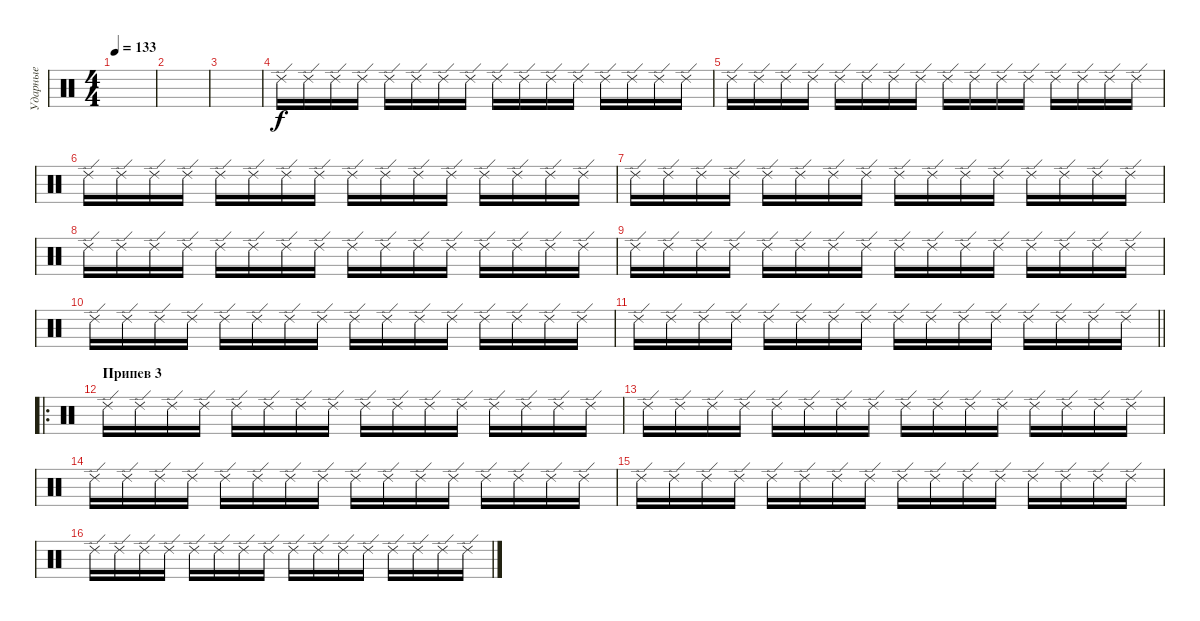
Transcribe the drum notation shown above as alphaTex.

\track ("Ударные" "Ударные") {instrument percussion}
\staff {score}
\articulation defaults
\ts (4 4)
\tempo 133
\clef neutral
\ks c
|
|
|
"Ride (edge) 2".16 "Ride (edge) 2".16 "Ride (edge) 2".16 "Ride (edge) 2".16 "Ride (edge) 2".16 "Ride (edge) 2".16 "Ride (edge) 2".16 "Ride (edge) 2".16 "Ride (edge) 2".16 "Ride (edge) 2".16 "Ride (edge) 2".16 "Ride (edge) 2".16 "Ride (edge) 2".16 "Ride (edge) 2".16 "Ride (edge) 2".16 "Ride (edge) 2".16 |
"Ride (edge) 2".16 "Ride (edge) 2".16 "Ride (edge) 2".16 "Ride (edge) 2".16 "Ride (edge) 2".16 "Ride (edge) 2".16 "Ride (edge) 2".16 "Ride (edge) 2".16 "Ride (edge) 2".16 "Ride (edge) 2".16 "Ride (edge) 2".16 "Ride (edge) 2".16 "Ride (edge) 2".16 "Ride (edge) 2".16 "Ride (edge) 2".16 "Ride (edge) 2".16 |
"Ride (edge) 2".16 "Ride (edge) 2".16 "Ride (edge) 2".16 "Ride (edge) 2".16 "Ride (edge) 2".16 "Ride (edge) 2".16 "Ride (edge) 2".16 "Ride (edge) 2".16 "Ride (edge) 2".16 "Ride (edge) 2".16 "Ride (edge) 2".16 "Ride (edge) 2".16 "Ride (edge) 2".16 "Ride (edge) 2".16 "Ride (edge) 2".16 "Ride (edge) 2".16 |
"Ride (edge) 2".16 "Ride (edge) 2".16 "Ride (edge) 2".16 "Ride (edge) 2".16 "Ride (edge) 2".16 "Ride (edge) 2".16 "Ride (edge) 2".16 "Ride (edge) 2".16 "Ride (edge) 2".16 "Ride (edge) 2".16 "Ride (edge) 2".16 "Ride (edge) 2".16 "Ride (edge) 2".16 "Ride (edge) 2".16 "Ride (edge) 2".16 "Ride (edge) 2".16 |
"Ride (edge) 2".16 "Ride (edge) 2".16 "Ride (edge) 2".16 "Ride (edge) 2".16 "Ride (edge) 2".16 "Ride (edge) 2".16 "Ride (edge) 2".16 "Ride (edge) 2".16 "Ride (edge) 2".16 "Ride (edge) 2".16 "Ride (edge) 2".16 "Ride (edge) 2".16 "Ride (edge) 2".16 "Ride (edge) 2".16 "Ride (edge) 2".16 "Ride (edge) 2".16 |
"Ride (edge) 2".16 "Ride (edge) 2".16 "Ride (edge) 2".16 "Ride (edge) 2".16 "Ride (edge) 2".16 "Ride (edge) 2".16 "Ride (edge) 2".16 "Ride (edge) 2".16 "Ride (edge) 2".16 "Ride (edge) 2".16 "Ride (edge) 2".16 "Ride (edge) 2".16 "Ride (edge) 2".16 "Ride (edge) 2".16 "Ride (edge) 2".16 "Ride (edge) 2".16 |
"Ride (edge) 2".16 "Ride (edge) 2".16 "Ride (edge) 2".16 "Ride (edge) 2".16 "Ride (edge) 2".16 "Ride (edge) 2".16 "Ride (edge) 2".16 "Ride (edge) 2".16 "Ride (edge) 2".16 "Ride (edge) 2".16 "Ride (edge) 2".16 "Ride (edge) 2".16 "Ride (edge) 2".16 "Ride (edge) 2".16 "Ride (edge) 2".16 "Ride (edge) 2".16 |
\barLineRight lightlight "Ride (edge) 2".16 "Ride (edge) 2".16 "Ride (edge) 2".16 "Ride (edge) 2".16 "Ride (edge) 2".16 "Ride (edge) 2".16 "Ride (edge) 2".16 "Ride (edge) 2".16 "Ride (edge) 2".16 "Ride (edge) 2".16 "Ride (edge) 2".16 "Ride (edge) 2".16 "Ride (edge) 2".16 "Ride (edge) 2".16 "Ride (edge) 2".16 "Ride (edge) 2".16
|
\ro
\section ("" "Припев 3")
"Ride (edge) 2".16 "Ride (edge) 2".16 "Ride (edge) 2".16 "Ride (edge) 2".16 "Ride (edge) 2".16 "Ride (edge) 2".16 "Ride (edge) 2".16 "Ride (edge) 2".16 "Ride (edge) 2".16 "Ride (edge) 2".16 "Ride (edge) 2".16 "Ride (edge) 2".16 "Ride (edge) 2".16 "Ride (edge) 2".16 "Ride (edge) 2".16 "Ride (edge) 2".16 |
"Ride (edge) 2".16 "Ride (edge) 2".16 "Ride (edge) 2".16 "Ride (edge) 2".16 "Ride (edge) 2".16 "Ride (edge) 2".16 "Ride (edge) 2".16 "Ride (edge) 2".16 "Ride (edge) 2".16 "Ride (edge) 2".16 "Ride (edge) 2".16 "Ride (edge) 2".16 "Ride (edge) 2".16 "Ride (edge) 2".16 "Ride (edge) 2".16 "Ride (edge) 2".16 |
"Ride (edge) 2".16 "Ride (edge) 2".16 "Ride (edge) 2".16 "Ride (edge) 2".16 "Ride (edge) 2".16 "Ride (edge) 2".16 "Ride (edge) 2".16 "Ride (edge) 2".16 "Ride (edge) 2".16 "Ride (edge) 2".16 "Ride (edge) 2".16 "Ride (edge) 2".16 "Ride (edge) 2".16 "Ride (edge) 2".16 "Ride (edge) 2".16 "Ride (edge) 2".16 |
"Ride (edge) 2".16 "Ride (edge) 2".16 "Ride (edge) 2".16 "Ride (edge) 2".16 "Ride (edge) 2".16 "Ride (edge) 2".16 "Ride (edge) 2".16 "Ride (edge) 2".16 "Ride (edge) 2".16 "Ride (edge) 2".16 "Ride (edge) 2".16 "Ride (edge) 2".16 "Ride (edge) 2".16 "Ride (edge) 2".16 "Ride (edge) 2".16 "Ride (edge) 2".16 |
"Ride (edge) 2".16 "Ride (edge) 2".16 "Ride (edge) 2".16 "Ride (edge) 2".16 "Ride (edge) 2".16 "Ride (edge) 2".16 "Ride (edge) 2".16 "Ride (edge) 2".16 "Ride (edge) 2".16 "Ride (edge) 2".16 "Ride (edge) 2".16 "Ride (edge) 2".16 "Ride (edge) 2".16 "Ride (edge) 2".16 "Ride (edge) 2".16 "Ride (edge) 2".16
